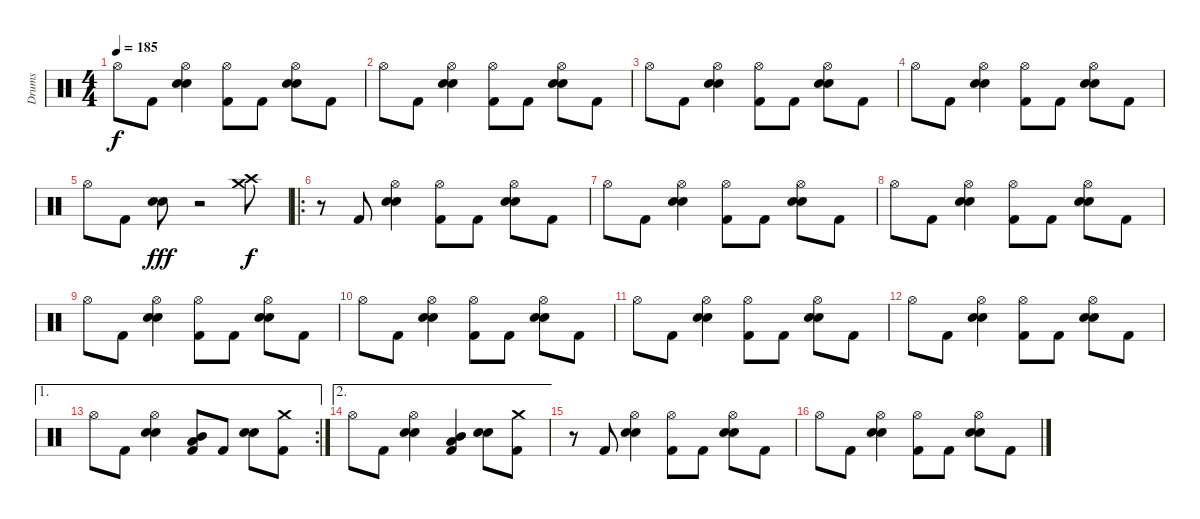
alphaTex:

\track ("Drums" "Drums") {instrument percussion}
\staff {score}
\articulation defaults
\ts (4 4)
\tempo 185
\clef neutral
\ks c "Hi-Hat (open)".8{dy f} "Kick (hit) 2".8
("Hi-Hat (open)" "Electric Snare (hit)" "Snare (hit) 2").4 ("Hi-Hat (open)" "Kick (hit) 2").8 "Kick (hit) 2".8 ("Hi-Hat (open)" "Electric Snare (hit)" "Snare (hit) 2").8 "Kick (hit) 2".8 |
"Hi-Hat (open)".8 "Kick (hit) 2".8 ("Hi-Hat (open)" "Electric Snare (hit)" "Snare (hit) 2").4 ("Hi-Hat (open)" "Kick (hit) 2").8 "Kick (hit) 2".8 ("Hi-Hat (open)" "Electric Snare (hit)" "Snare (hit) 2").8 "Kick (hit) 2".8 |
"Hi-Hat (open)".8 "Kick (hit) 2".8 ("Hi-Hat (open)" "Electric Snare (hit)" "Snare (hit) 2").4 ("Hi-Hat (open)" "Kick (hit) 2").8 "Kick (hit) 2".8 ("Hi-Hat (open)" "Electric Snare (hit)" "Snare (hit) 2").8 "Kick (hit) 2".8 |
"Hi-Hat (open)".8 "Kick (hit) 2".8 ("Hi-Hat (open)" "Electric Snare (hit)" "Snare (hit) 2").4 ("Hi-Hat (open)" "Kick (hit) 2").8 "Kick (hit) 2".8 ("Hi-Hat (open)" "Electric Snare (hit)" "Snare (hit) 2").8 "Kick (hit) 2".8 |
"Hi-Hat (open)".8 "Kick (hit) 2".8 ("Electric Snare (hit)" "Snare (hit) 2").8{dy fff} r.2 ("Crash medium (hit)" "Crash high (hit)").8{dy f} |
\ro
r.8 "Kick (hit) 2".8 ("Hi-Hat (open)" "Electric Snare (hit)" "Snare (hit) 2").4 ("Hi-Hat (open)" "Kick (hit) 2").8 "Kick (hit) 2".8 ("Hi-Hat (open)" "Electric Snare (hit)" "Snare (hit) 2").8 "Kick (hit) 2".8 |
"Hi-Hat (open)".8 "Kick (hit) 2".8 ("Hi-Hat (open)" "Electric Snare (hit)" "Snare (hit) 2").4 ("Hi-Hat (open)" "Kick (hit) 2").8 "Kick (hit) 2".8 ("Hi-Hat (open)" "Electric Snare (hit)" "Snare (hit) 2").8 "Kick (hit) 2".8 |
"Hi-Hat (open)".8 "Kick (hit) 2".8 ("Hi-Hat (open)" "Electric Snare (hit)" "Snare (hit) 2").4 ("Hi-Hat (open)" "Kick (hit) 2").8 "Kick (hit) 2".8 ("Hi-Hat (open)" "Electric Snare (hit)" "Snare (hit) 2").8 "Kick (hit) 2".8 |
"Hi-Hat (open)".8 "Kick (hit) 2".8 ("Hi-Hat (open)" "Electric Snare (hit)" "Snare (hit) 2").4 ("Hi-Hat (open)" "Kick (hit) 2").8 "Kick (hit) 2".8 ("Hi-Hat (open)" "Electric Snare (hit)" "Snare (hit) 2").8 "Kick (hit) 2".8 |
"Hi-Hat (open)".8 "Kick (hit) 2".8 ("Hi-Hat (open)" "Electric Snare (hit)" "Snare (hit) 2").4 ("Hi-Hat (open)" "Kick (hit) 2").8 "Kick (hit) 2".8 ("Hi-Hat (open)" "Electric Snare (hit)" "Snare (hit) 2").8 "Kick (hit) 2".8 |
"Hi-Hat (open)".8 "Kick (hit) 2".8 ("Hi-Hat (open)" "Electric Snare (hit)" "Snare (hit) 2").4 ("Hi-Hat (open)" "Kick (hit) 2").8 "Kick (hit) 2".8 ("Hi-Hat (open)" "Electric Snare (hit)" "Snare (hit) 2").8 "Kick (hit) 2".8 |
"Hi-Hat (open)".8 "Kick (hit) 2".8 ("Hi-Hat (open)" "Electric Snare (hit)" "Snare (hit) 2").4 ("Hi-Hat (open)" "Kick (hit) 2").8 "Kick (hit) 2".8 ("Hi-Hat (open)" "Electric Snare (hit)" "Snare (hit) 2").8 "Kick (hit) 2".8 |
\ae 1
\rc 2 "Hi-Hat (open)".8 "Kick (hit) 2".8
("Hi-Hat (open)" "Electric Snare (hit)" "Snare (hit) 2").4 ("Low Tom (hit)" "Mid Tom (hit)" "Kick (hit) 2").8 "Kick (hit) 2".8 ("Electric Snare (hit)" "Snare (hit) 2").8 ("Crash medium (hit)" "Kick (hit) 2").8 |
\ae 2 "Hi-Hat (open)".8 "Kick (hit) 2".8
("Hi-Hat (open)" "Electric Snare (hit)" "Snare (hit) 2").4 ("Low Tom (hit)" "Mid Tom (hit)" "Kick (hit) 2").4 ("Electric Snare (hit)" "Snare (hit) 2").8 ("Crash medium (hit)" "Kick (hit) 2").8 |
r.8 "Kick (hit) 2".8 ("Hi-Hat (open)" "Electric Snare (hit)" "Snare (hit) 2").4 ("Hi-Hat (open)" "Kick (hit) 2").8 "Kick (hit) 2".8 ("Hi-Hat (open)" "Electric Snare (hit)" "Snare (hit) 2").8 "Kick (hit) 2".8 |
"Hi-Hat (open)".8 "Kick (hit) 2".8 ("Hi-Hat (open)" "Electric Snare (hit)" "Snare (hit) 2").4 ("Hi-Hat (open)" "Kick (hit) 2").8 "Kick (hit) 2".8 ("Hi-Hat (open)" "Electric Snare (hit)" "Snare (hit) 2").8 "Kick (hit) 2".8
